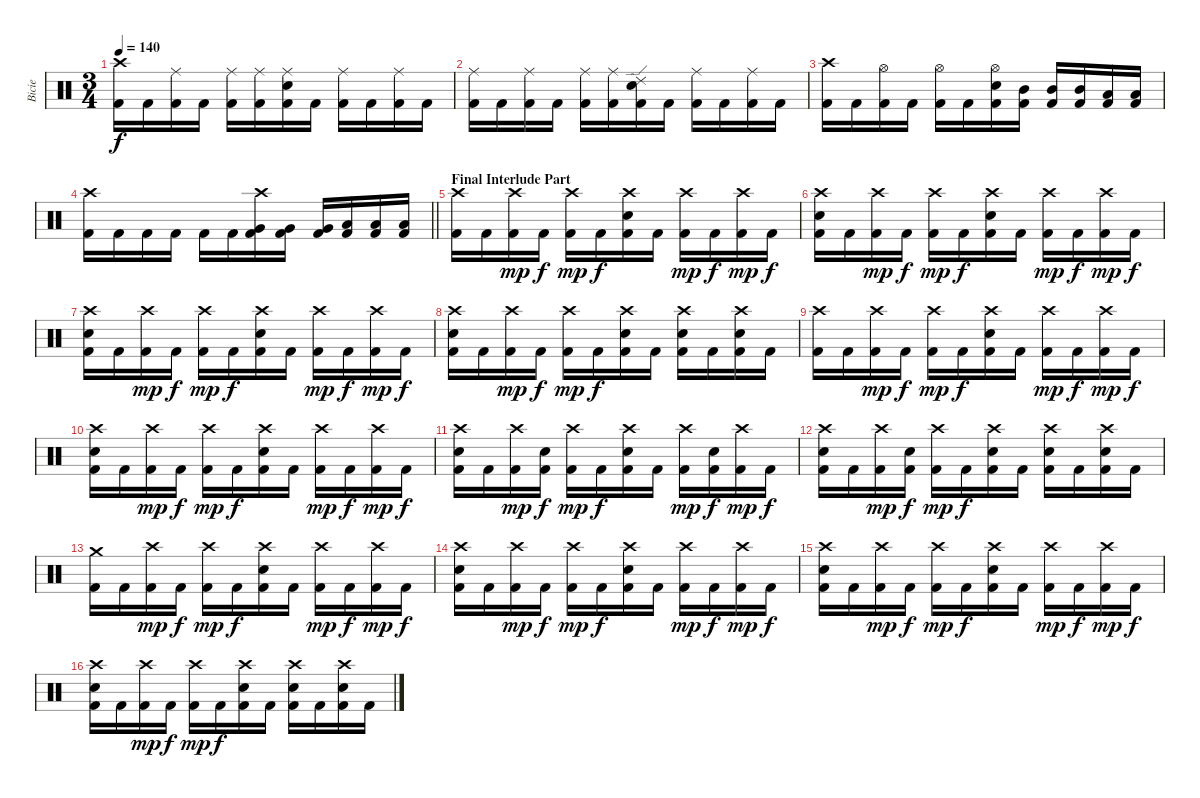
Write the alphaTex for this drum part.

\track ("Bicie" "Bicie") {instrument percussion}
\staff {score}
\articulation defaults
\ts (3 4)
\tempo 140
\clef neutral
\ks c
("Crash high (hit)" "Kick (hit) 2").16{dy f} "Kick (hit) 2".16 ("Ride (middle)" "Kick (hit) 2").16 "Kick (hit) 2".16 ("Ride (middle)" "Kick (hit) 2").16 ("Ride (middle)" "Kick (hit) 2").16 ("Ride (middle)" "Snare (hit) 2" "Kick (hit) 2").16 "Kick (hit) 2".16 ("Ride (middle)" "Kick (hit) 2").16 "Kick (hit) 2".16 ("Ride (middle)" "Kick (hit) 2").16 "Kick (hit) 2".16 |
("Ride (middle)" "Kick (hit) 2").16 "Kick (hit) 2".16 ("Ride (middle)" "Kick (hit) 2").16 "Kick (hit) 2".16 ("Ride (middle)" "Kick (hit) 2").16 ("Ride (middle)" "Kick (hit) 2").16 ("Ride (edge) 2" "Snare (hit) 2" "Kick (hit) 2").16 "Kick (hit) 2".16 ("Ride (middle)" "Kick (hit) 2").16 "Kick (hit) 2".16 ("Ride (middle)" "Kick (hit) 2").16 "Kick (hit) 2".16 |
("Crash high (hit)" "Kick (hit) 2").16 "Kick (hit) 2".16 ("Hi-Hat (open)" "Kick (hit) 2").16 "Kick (hit) 2".16 ("Hi-Hat (open)" "Kick (hit) 2").16 "Kick (hit) 2".16 ("Hi-Hat (open)" "Snare (hit) 2" "Kick (hit) 2").16 ("Mid Tom (hit)" "Kick (hit) 2").16 ("Mid Tom (hit)" "Kick (hit) 2").16 ("Mid Tom (hit)" "Kick (hit) 2").16 ("Low Tom (hit)" "Kick (hit) 2").16 ("Low Tom (hit)" "Kick (hit) 2").16 |
\barLineRight lightlight
("Crash high (hit)" "Kick (hit) 2").16 "Kick (hit) 2".16 "Kick (hit) 2".16 "Kick (hit) 2".16 "Kick (hit) 2".16 "Kick (hit) 2".16 ("Crash high (hit)" "Very Low Tom (hit)" "Kick (hit) 2").16 ("Very Low Tom (hit)" "Kick (hit) 2").16 ("Very Low Tom (hit)" "Kick (hit) 2").16 ("Low Floor Tom (hit)" "Kick (hit) 2").16 ("Low Floor Tom (hit)" "Kick (hit) 2").16 ("Low Floor Tom (hit)" "Kick (hit) 2").16 |
\section ("" "Final Interlude Part")
("Crash high (hit)" "Kick (hit) 2").16 "Kick (hit) 2".16 ("Crash high (hit)" "Kick (hit) 2").16{dy mp} "Kick (hit) 2".16{dy f} ("Crash high (hit)" "Kick (hit) 2").16{dy mp} "Kick (hit) 2".16{dy f} ("Crash high (hit)" "Snare (hit) 2" "Kick (hit) 2").16 "Kick (hit) 2".16 ("Crash high (hit)" "Kick (hit) 2").16{dy mp} "Kick (hit) 2".16{dy f} ("Crash high (hit)" "Kick (hit) 2").16{dy mp} "Kick (hit) 2".16{dy f} |
("Crash high (hit)" "Snare (hit) 2" "Kick (hit) 2").16 "Kick (hit) 2".16 ("Crash high (hit)" "Kick (hit) 2").16{dy mp} "Kick (hit) 2".16{dy f} ("Crash high (hit)" "Kick (hit) 2").16{dy mp} "Kick (hit) 2".16{dy f} ("Crash high (hit)" "Snare (hit) 2" "Kick (hit) 2").16 "Kick (hit) 2".16 ("Crash high (hit)" "Kick (hit) 2").16{dy mp} "Kick (hit) 2".16{dy f} ("Crash high (hit)" "Kick (hit) 2").16{dy mp} "Kick (hit) 2".16{dy f} |
("Crash high (hit)" "Snare (hit) 2" "Kick (hit) 2").16 "Kick (hit) 2".16 ("Crash high (hit)" "Kick (hit) 2").16{dy mp} "Kick (hit) 2".16{dy f} ("Crash high (hit)" "Kick (hit) 2").16{dy mp} "Kick (hit) 2".16{dy f} ("Crash high (hit)" "Snare (hit) 2" "Kick (hit) 2").16 "Kick (hit) 2".16 ("Crash high (hit)" "Kick (hit) 2").16{dy mp} "Kick (hit) 2".16{dy f} ("Crash high (hit)" "Kick (hit) 2").16{dy mp} "Kick (hit) 2".16{dy f} |
("Crash high (hit)" "Snare (hit) 2" "Kick (hit) 2").16 "Kick (hit) 2".16 ("Crash high (hit)" "Kick (hit) 2").16{dy mp} "Kick (hit) 2".16{dy f} ("Crash high (hit)" "Kick (hit) 2").16{dy mp} "Kick (hit) 2".16{dy f} ("Crash high (hit)" "Snare (hit) 2" "Kick (hit) 2").16 "Kick (hit) 2".16 ("Crash high (hit)" "Snare (hit) 2" "Kick (hit) 2").16 "Kick (hit) 2".16 ("Crash high (hit)" "Snare (hit) 2" "Kick (hit) 2").16 "Kick (hit) 2".16 |
("Crash high (hit)" "Kick (hit) 2").16 "Kick (hit) 2".16 ("Crash high (hit)" "Kick (hit) 2").16{dy mp} "Kick (hit) 2".16{dy f} ("Crash high (hit)" "Kick (hit) 2").16{dy mp} "Kick (hit) 2".16{dy f} ("Crash high (hit)" "Snare (hit) 2" "Kick (hit) 2").16 "Kick (hit) 2".16 ("Crash high (hit)" "Kick (hit) 2").16{dy mp} "Kick (hit) 2".16{dy f} ("Crash high (hit)" "Kick (hit) 2").16{dy mp} "Kick (hit) 2".16{dy f} |
("Crash high (hit)" "Snare (hit) 2" "Kick (hit) 2").16 "Kick (hit) 2".16 ("Crash high (hit)" "Kick (hit) 2").16{dy mp} "Kick (hit) 2".16{dy f} ("Crash high (hit)" "Kick (hit) 2").16{dy mp} "Kick (hit) 2".16{dy f} ("Crash high (hit)" "Snare (hit) 2" "Kick (hit) 2").16 "Kick (hit) 2".16 ("Crash high (hit)" "Kick (hit) 2").16{dy mp} "Kick (hit) 2".16{dy f} ("Crash high (hit)" "Kick (hit) 2").16{dy mp} "Kick (hit) 2".16{dy f} |
("Crash high (hit)" "Snare (hit) 2" "Kick (hit) 2").16 "Kick (hit) 2".16 ("Crash high (hit)" "Kick (hit) 2").16{dy mp} ("Snare (hit) 2" "Kick (hit) 2").16{dy f} ("Crash high (hit)" "Kick (hit) 2").16{dy mp} "Kick (hit) 2".16{dy f} ("Crash high (hit)" "Snare (hit) 2" "Kick (hit) 2").16 "Kick (hit) 2".16 ("Crash high (hit)" "Kick (hit) 2").16{dy mp} ("Snare (hit) 2" "Kick (hit) 2").16{dy f} ("Crash high (hit)" "Kick (hit) 2").16{dy mp} "Kick (hit) 2".16{dy f} |
("Crash high (hit)" "Snare (hit) 2" "Kick (hit) 2").16 "Kick (hit) 2".16 ("Crash high (hit)" "Kick (hit) 2").16{dy mp} ("Snare (hit) 2" "Kick (hit) 2").16{dy f} ("Crash high (hit)" "Kick (hit) 2").16{dy mp} "Kick (hit) 2".16{dy f} ("Crash high (hit)" "Snare (hit) 2" "Kick (hit) 2").16 "Kick (hit) 2".16 ("Crash high (hit)" "Snare (hit) 2" "Kick (hit) 2").16 "Kick (hit) 2".16 ("Crash high (hit)" "Snare (hit) 2" "Kick (hit) 2").16 "Kick (hit) 2".16 |
("Crash medium (hit)" "Kick (hit) 2").16 "Kick (hit) 2".16 ("Crash high (hit)" "Kick (hit) 2").16{dy mp} "Kick (hit) 2".16{dy f} ("Crash high (hit)" "Kick (hit) 2").16{dy mp} "Kick (hit) 2".16{dy f} ("Crash high (hit)" "Snare (hit) 2" "Kick (hit) 2").16 "Kick (hit) 2".16 ("Crash high (hit)" "Kick (hit) 2").16{dy mp} "Kick (hit) 2".16{dy f} ("Crash high (hit)" "Kick (hit) 2").16{dy mp} "Kick (hit) 2".16{dy f} |
("Crash high (hit)" "Snare (hit) 2" "Kick (hit) 2").16 "Kick (hit) 2".16 ("Crash high (hit)" "Kick (hit) 2").16{dy mp} "Kick (hit) 2".16{dy f} ("Crash high (hit)" "Kick (hit) 2").16{dy mp} "Kick (hit) 2".16{dy f} ("Crash high (hit)" "Snare (hit) 2" "Kick (hit) 2").16 "Kick (hit) 2".16 ("Crash high (hit)" "Kick (hit) 2").16{dy mp} "Kick (hit) 2".16{dy f} ("Crash high (hit)" "Kick (hit) 2").16{dy mp} "Kick (hit) 2".16{dy f} |
("Crash high (hit)" "Snare (hit) 2" "Kick (hit) 2").16 "Kick (hit) 2".16 ("Crash high (hit)" "Kick (hit) 2").16{dy mp} "Kick (hit) 2".16{dy f} ("Crash high (hit)" "Kick (hit) 2").16{dy mp} "Kick (hit) 2".16{dy f} ("Crash high (hit)" "Snare (hit) 2" "Kick (hit) 2").16 "Kick (hit) 2".16 ("Crash high (hit)" "Kick (hit) 2").16{dy mp} "Kick (hit) 2".16{dy f} ("Crash high (hit)" "Kick (hit) 2").16{dy mp} "Kick (hit) 2".16{dy f} |
("Crash high (hit)" "Snare (hit) 2" "Kick (hit) 2").16 "Kick (hit) 2".16 ("Crash high (hit)" "Kick (hit) 2").16{dy mp} "Kick (hit) 2".16{dy f} ("Crash high (hit)" "Kick (hit) 2").16{dy mp} "Kick (hit) 2".16{dy f} ("Crash high (hit)" "Snare (hit) 2" "Kick (hit) 2").16 "Kick (hit) 2".16 ("Crash high (hit)" "Snare (hit) 2" "Kick (hit) 2").16 "Kick (hit) 2".16 ("Crash high (hit)" "Snare (hit) 2" "Kick (hit) 2").16 "Kick (hit) 2".16
